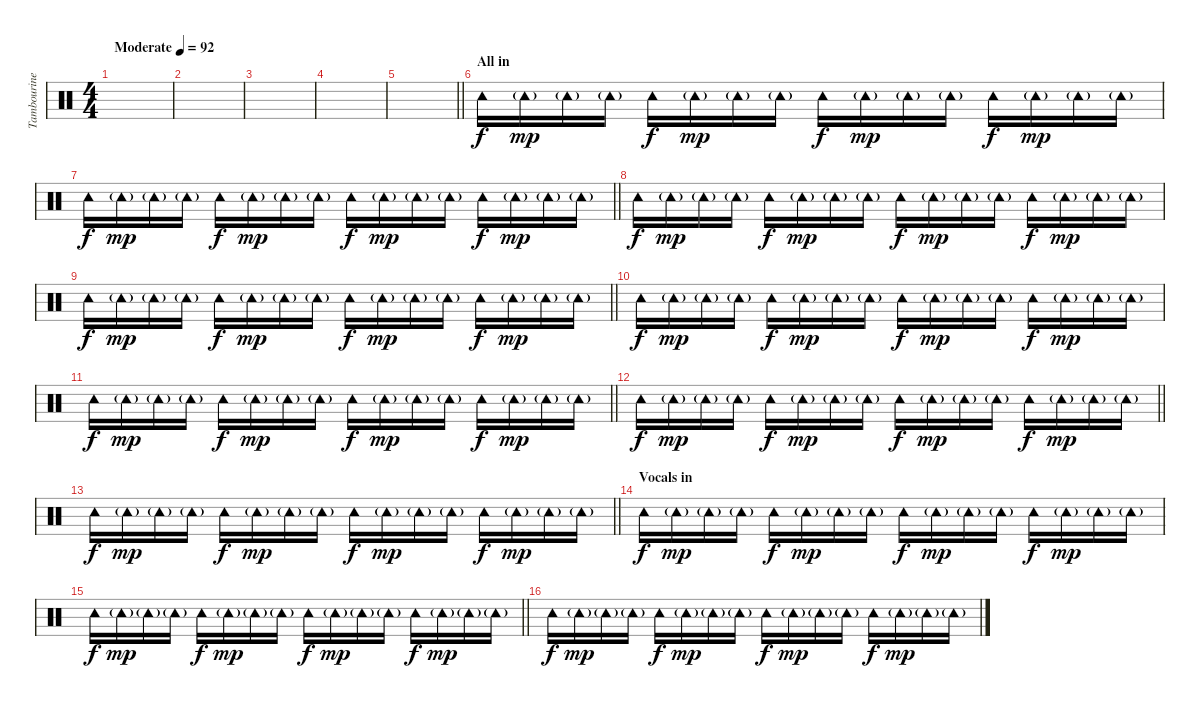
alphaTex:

\track ("Tambourine" "Tambourine") {instrument percussion}
\staff {score}
\articulation defaults
\ts (4 4)
\tempo (92 "Moderate")
\clef neutral
\ks c
|
|
|
|
\barLineRight lightlight
|
\section ("" "All in")
"Tambourine (hit)".16 "Tambourine (hit)"{g}.16{dy mp} "Tambourine (hit)"{g}.16 "Tambourine (hit)"{g}.16 "Tambourine (hit)".16{dy f} "Tambourine (hit)"{g}.16{dy mp} "Tambourine (hit)"{g}.16 "Tambourine (hit)"{g}.16 "Tambourine (hit)".16{dy f} "Tambourine (hit)"{g}.16{dy mp} "Tambourine (hit)"{g}.16 "Tambourine (hit)"{g}.16 "Tambourine (hit)".16{dy f} "Tambourine (hit)"{g}.16{dy mp} "Tambourine (hit)"{g}.16 "Tambourine (hit)"{g}.16 |
\barLineRight lightlight "Tambourine (hit)".16{dy f} "Tambourine (hit)"{g}.16{dy mp} "Tambourine (hit)"{g}.16 "Tambourine (hit)"{g}.16 "Tambourine (hit)".16{dy f} "Tambourine (hit)"{g}.16{dy mp} "Tambourine (hit)"{g}.16 "Tambourine (hit)"{g}.16 "Tambourine (hit)".16{dy f} "Tambourine (hit)"{g}.16{dy mp} "Tambourine (hit)"{g}.16 "Tambourine (hit)"{g}.16 "Tambourine (hit)".16{dy f} "Tambourine (hit)"{g}.16{dy mp} "Tambourine (hit)"{g}.16 "Tambourine (hit)"{g}.16
|
"Tambourine (hit)".16{dy f} "Tambourine (hit)"{g}.16{dy mp} "Tambourine (hit)"{g}.16 "Tambourine (hit)"{g}.16 "Tambourine (hit)".16{dy f} "Tambourine (hit)"{g}.16{dy mp} "Tambourine (hit)"{g}.16 "Tambourine (hit)"{g}.16 "Tambourine (hit)".16{dy f} "Tambourine (hit)"{g}.16{dy mp} "Tambourine (hit)"{g}.16 "Tambourine (hit)"{g}.16 "Tambourine (hit)".16{dy f} "Tambourine (hit)"{g}.16{dy mp} "Tambourine (hit)"{g}.16 "Tambourine (hit)"{g}.16 |
\barLineRight lightlight "Tambourine (hit)".16{dy f} "Tambourine (hit)"{g}.16{dy mp} "Tambourine (hit)"{g}.16 "Tambourine (hit)"{g}.16 "Tambourine (hit)".16{dy f} "Tambourine (hit)"{g}.16{dy mp} "Tambourine (hit)"{g}.16 "Tambourine (hit)"{g}.16 "Tambourine (hit)".16{dy f} "Tambourine (hit)"{g}.16{dy mp} "Tambourine (hit)"{g}.16 "Tambourine (hit)"{g}.16 "Tambourine (hit)".16{dy f} "Tambourine (hit)"{g}.16{dy mp} "Tambourine (hit)"{g}.16 "Tambourine (hit)"{g}.16
|
"Tambourine (hit)".16{dy f} "Tambourine (hit)"{g}.16{dy mp} "Tambourine (hit)"{g}.16 "Tambourine (hit)"{g}.16 "Tambourine (hit)".16{dy f} "Tambourine (hit)"{g}.16{dy mp} "Tambourine (hit)"{g}.16 "Tambourine (hit)"{g}.16 "Tambourine (hit)".16{dy f} "Tambourine (hit)"{g}.16{dy mp} "Tambourine (hit)"{g}.16 "Tambourine (hit)"{g}.16 "Tambourine (hit)".16{dy f} "Tambourine (hit)"{g}.16{dy mp} "Tambourine (hit)"{g}.16 "Tambourine (hit)"{g}.16 |
\barLineRight lightlight "Tambourine (hit)".16{dy f} "Tambourine (hit)"{g}.16{dy mp} "Tambourine (hit)"{g}.16 "Tambourine (hit)"{g}.16 "Tambourine (hit)".16{dy f} "Tambourine (hit)"{g}.16{dy mp} "Tambourine (hit)"{g}.16 "Tambourine (hit)"{g}.16 "Tambourine (hit)".16{dy f} "Tambourine (hit)"{g}.16{dy mp} "Tambourine (hit)"{g}.16 "Tambourine (hit)"{g}.16 "Tambourine (hit)".16{dy f} "Tambourine (hit)"{g}.16{dy mp} "Tambourine (hit)"{g}.16 "Tambourine (hit)"{g}.16
|
\barLineRight lightlight "Tambourine (hit)".16{dy f} "Tambourine (hit)"{g}.16{dy mp} "Tambourine (hit)"{g}.16 "Tambourine (hit)"{g}.16 "Tambourine (hit)".16{dy f} "Tambourine (hit)"{g}.16{dy mp} "Tambourine (hit)"{g}.16 "Tambourine (hit)"{g}.16 "Tambourine (hit)".16{dy f} "Tambourine (hit)"{g}.16{dy mp} "Tambourine (hit)"{g}.16 "Tambourine (hit)"{g}.16 "Tambourine (hit)".16{dy f} "Tambourine (hit)"{g}.16{dy mp} "Tambourine (hit)"{g}.16 "Tambourine (hit)"{g}.16
|
\barLineRight lightlight "Tambourine (hit)".16{dy f} "Tambourine (hit)"{g}.16{dy mp} "Tambourine (hit)"{g}.16 "Tambourine (hit)"{g}.16 "Tambourine (hit)".16{dy f} "Tambourine (hit)"{g}.16{dy mp} "Tambourine (hit)"{g}.16 "Tambourine (hit)"{g}.16 "Tambourine (hit)".16{dy f} "Tambourine (hit)"{g}.16{dy mp} "Tambourine (hit)"{g}.16 "Tambourine (hit)"{g}.16 "Tambourine (hit)".16{dy f} "Tambourine (hit)"{g}.16{dy mp} "Tambourine (hit)"{g}.16 "Tambourine (hit)"{g}.16
|
\section ("" "Vocals in")
"Tambourine (hit)".16{dy f} "Tambourine (hit)"{g}.16{dy mp} "Tambourine (hit)"{g}.16 "Tambourine (hit)"{g}.16 "Tambourine (hit)".16{dy f} "Tambourine (hit)"{g}.16{dy mp} "Tambourine (hit)"{g}.16 "Tambourine (hit)"{g}.16 "Tambourine (hit)".16{dy f} "Tambourine (hit)"{g}.16{dy mp} "Tambourine (hit)"{g}.16 "Tambourine (hit)"{g}.16 "Tambourine (hit)".16{dy f} "Tambourine (hit)"{g}.16{dy mp} "Tambourine (hit)"{g}.16 "Tambourine (hit)"{g}.16 |
\barLineRight lightlight "Tambourine (hit)".16{dy f} "Tambourine (hit)"{g}.16{dy mp} "Tambourine (hit)"{g}.16 "Tambourine (hit)"{g}.16 "Tambourine (hit)".16{dy f} "Tambourine (hit)"{g}.16{dy mp} "Tambourine (hit)"{g}.16 "Tambourine (hit)"{g}.16 "Tambourine (hit)".16{dy f} "Tambourine (hit)"{g}.16{dy mp} "Tambourine (hit)"{g}.16 "Tambourine (hit)"{g}.16 "Tambourine (hit)".16{dy f} "Tambourine (hit)"{g}.16{dy mp} "Tambourine (hit)"{g}.16 "Tambourine (hit)"{g}.16
|
"Tambourine (hit)".16{dy f} "Tambourine (hit)"{g}.16{dy mp} "Tambourine (hit)"{g}.16 "Tambourine (hit)"{g}.16 "Tambourine (hit)".16{dy f} "Tambourine (hit)"{g}.16{dy mp} "Tambourine (hit)"{g}.16 "Tambourine (hit)"{g}.16 "Tambourine (hit)".16{dy f} "Tambourine (hit)"{g}.16{dy mp} "Tambourine (hit)"{g}.16 "Tambourine (hit)"{g}.16 "Tambourine (hit)".16{dy f} "Tambourine (hit)"{g}.16{dy mp} "Tambourine (hit)"{g}.16 "Tambourine (hit)"{g}.16
